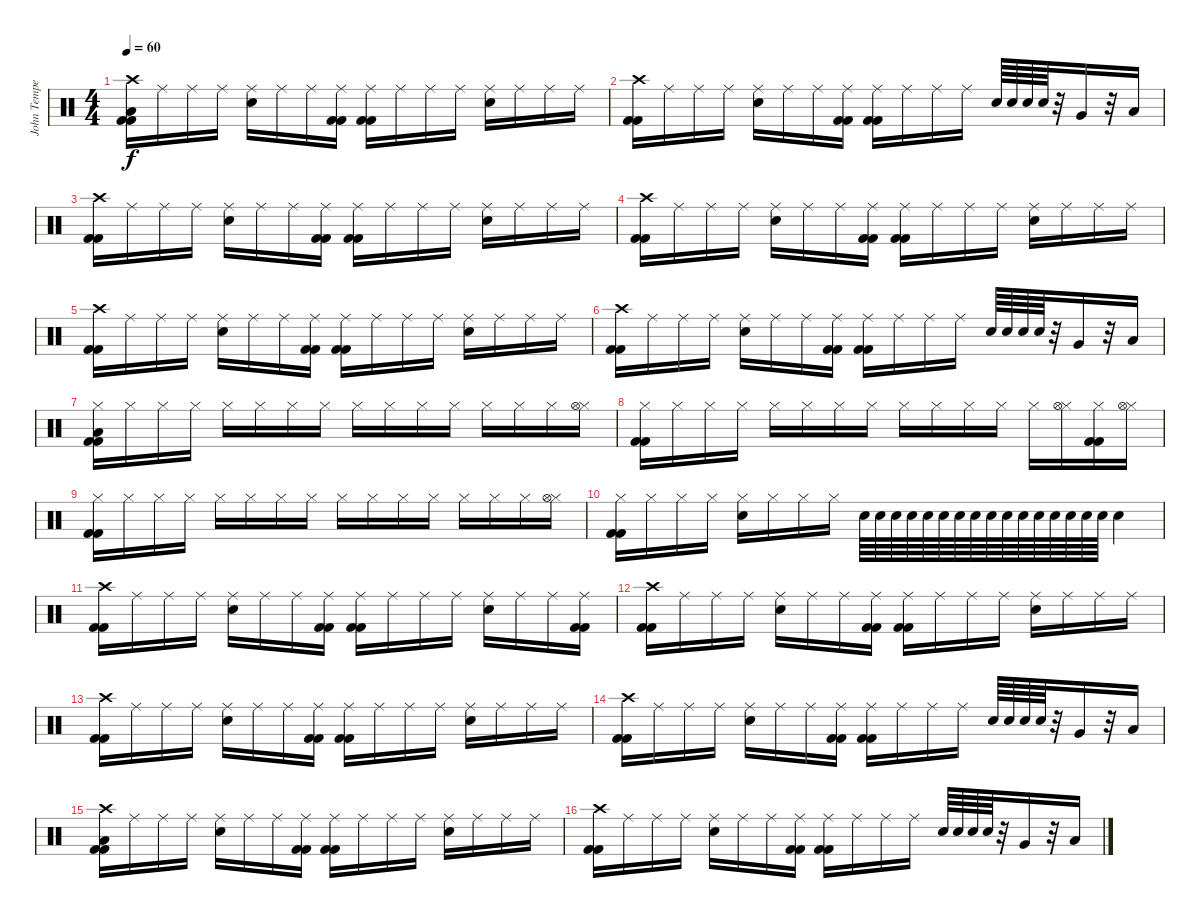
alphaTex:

\track ("John Tempesta" "John Tempe") {instrument percussion}
\staff {score}
\articulation defaults
\ts (4 4)
\tempo 60
\clef neutral
\ks c
("Crash high (hit)" "Low Floor Tom (hit)" "Kick (hit) 2" "Kick (hit) 2").16{dy f} "Ride (middle)".16 "Ride (middle)".16 "Ride (middle)".16 ("Ride (middle)" "Electric Snare (hit)").16 "Ride (middle)".16 "Ride (middle)".16 ("Ride (middle)" "Kick (hit) 2" "Kick (hit) 2").16 ("Ride (middle)" "Kick (hit) 2" "Kick (hit) 2").16 "Ride (middle)".16 "Ride (middle)".16 "Ride (middle)".16 ("Ride (middle)" "Electric Snare (hit)").16 "Ride (middle)".16 "Ride (middle)".16 "Ride (middle)".16 |
("Crash high (hit)" "Kick (hit) 2" "Kick (hit) 2").16 "Ride (middle)".16 "Ride (middle)".16 "Ride (middle)".16 ("Ride (middle)" "Electric Snare (hit)").16 "Ride (middle)".16 "Ride (middle)".16 ("Ride (middle)" "Kick (hit) 2" "Kick (hit) 2").16 ("Ride (middle)" "Kick (hit) 2" "Kick (hit) 2").16 "Ride (middle)".16 "Ride (middle)".16 "Ride (middle)".16 "Electric Snare (hit)".64 "Electric Snare (hit)".64 "Electric Snare (hit)".64 "Electric Snare (hit)".64 r.32 "Very Low Tom (hit)".16 r.32 "Low Floor Tom (hit)".16 |
("Crash high (hit)" "Kick (hit) 2" "Kick (hit) 2").16 "Ride (middle)".16 "Ride (middle)".16 "Ride (middle)".16 ("Ride (middle)" "Electric Snare (hit)").16 "Ride (middle)".16 "Ride (middle)".16 ("Ride (middle)" "Kick (hit) 2" "Kick (hit) 2").16 ("Ride (middle)" "Kick (hit) 2" "Kick (hit) 2").16 "Ride (middle)".16 "Ride (middle)".16 "Ride (middle)".16 ("Ride (middle)" "Electric Snare (hit)").16 "Ride (middle)".16 "Ride (middle)".16 "Ride (middle)".16 |
("Crash high (hit)" "Kick (hit) 2" "Kick (hit) 2").16 "Ride (middle)".16 "Ride (middle)".16 "Ride (middle)".16 ("Ride (middle)" "Electric Snare (hit)").16 "Ride (middle)".16 "Ride (middle)".16 ("Ride (middle)" "Kick (hit) 2" "Kick (hit) 2").16 ("Ride (middle)" "Kick (hit) 2" "Kick (hit) 2").16 "Ride (middle)".16 "Ride (middle)".16 "Ride (middle)".16 ("Ride (middle)" "Electric Snare (hit)").16 "Ride (middle)".16 "Ride (middle)".16 "Ride (middle)".16 |
("Crash high (hit)" "Kick (hit) 2" "Kick (hit) 2").16 "Ride (middle)".16 "Ride (middle)".16 "Ride (middle)".16 ("Ride (middle)" "Electric Snare (hit)").16 "Ride (middle)".16 "Ride (middle)".16 ("Ride (middle)" "Kick (hit) 2" "Kick (hit) 2").16 ("Ride (middle)" "Kick (hit) 2" "Kick (hit) 2").16 "Ride (middle)".16 "Ride (middle)".16 "Ride (middle)".16 ("Ride (middle)" "Electric Snare (hit)").16 "Ride (middle)".16 "Ride (middle)".16 "Ride (middle)".16 |
("Crash high (hit)" "Kick (hit) 2" "Kick (hit) 2").16 "Ride (middle)".16 "Ride (middle)".16 "Ride (middle)".16 ("Ride (middle)" "Electric Snare (hit)").16 "Ride (middle)".16 "Ride (middle)".16 ("Ride (middle)" "Kick (hit) 2" "Kick (hit) 2").16 ("Ride (middle)" "Kick (hit) 2" "Kick (hit) 2").16 "Ride (middle)".16 "Ride (middle)".16 "Ride (middle)".16 "Electric Snare (hit)".64 "Electric Snare (hit)".64 "Electric Snare (hit)".64 "Electric Snare (hit)".64 r.32 "Very Low Tom (hit)".16 r.32 "Low Floor Tom (hit)".16 |
("Hi-Hat (closed)" "Low Floor Tom (hit)" "Kick (hit) 2" "Kick (hit) 2").16 "Hi-Hat (closed)".16 "Hi-Hat (closed)".16 "Hi-Hat (closed)".16 "Hi-Hat (closed)".16 "Hi-Hat (closed)".16 "Hi-Hat (closed)".16 "Hi-Hat (closed)".16 "Hi-Hat (closed)".16 "Hi-Hat (closed)".16 "Hi-Hat (closed)".16 "Hi-Hat (closed)".16 "Hi-Hat (closed)".16 "Hi-Hat (closed)".16 "Hi-Hat (closed)".16 ("Hi-Hat (closed)" "Hi-Hat (open)").16 |
("Hi-Hat (closed)" "Kick (hit) 2" "Kick (hit) 2").16 "Hi-Hat (closed)".16 "Hi-Hat (closed)".16 "Hi-Hat (closed)".16 "Hi-Hat (closed)".16 "Hi-Hat (closed)".16 "Hi-Hat (closed)".16 "Hi-Hat (closed)".16 "Hi-Hat (closed)".16 "Hi-Hat (closed)".16 "Hi-Hat (closed)".16 "Hi-Hat (closed)".16 "Hi-Hat (closed)".16 ("Hi-Hat (closed)" "Hi-Hat (open)").16 ("Hi-Hat (closed)" "Kick (hit) 2" "Kick (hit) 2").16 ("Hi-Hat (closed)" "Hi-Hat (open)").16 |
("Hi-Hat (closed)" "Kick (hit) 2" "Kick (hit) 2").16 "Hi-Hat (closed)".16 "Hi-Hat (closed)".16 "Hi-Hat (closed)".16 "Hi-Hat (closed)".16 "Hi-Hat (closed)".16 "Hi-Hat (closed)".16 "Hi-Hat (closed)".16 "Hi-Hat (closed)".16 "Hi-Hat (closed)".16 "Hi-Hat (closed)".16 "Hi-Hat (closed)".16 "Hi-Hat (closed)".16 "Hi-Hat (closed)".16 "Hi-Hat (closed)".16 ("Hi-Hat (closed)" "Hi-Hat (open)").16 |
("Hi-Hat (closed)" "Kick (hit) 2" "Kick (hit) 2").16 "Hi-Hat (closed)".16 "Hi-Hat (closed)".16 "Hi-Hat (closed)".16 ("Hi-Hat (closed)" "Electric Snare (hit)").16 "Hi-Hat (closed)".16 "Hi-Hat (closed)".16 "Hi-Hat (closed)".16 "Electric Snare (hit)".64 "Electric Snare (hit)".64 "Electric Snare (hit)".64 "Electric Snare (hit)".64 "Electric Snare (hit)".64 "Electric Snare (hit)".64 "Electric Snare (hit)".64 "Electric Snare (hit)".64 "Electric Snare (hit)".64 "Electric Snare (hit)".64 "Electric Snare (hit)".64 "Electric Snare (hit)".64 "Electric Snare (hit)".64 "Electric Snare (hit)".64 "Electric Snare (hit)".64 "Electric Snare (hit)".64 "Electric Snare (hit)".4 |
("Crash high (hit)" "Kick (hit) 2" "Kick (hit) 2").16 "Ride (middle)".16 "Ride (middle)".16 "Ride (middle)".16 ("Ride (middle)" "Electric Snare (hit)").16 "Ride (middle)".16 "Ride (middle)".16 ("Ride (middle)" "Kick (hit) 2" "Kick (hit) 2").16 ("Ride (middle)" "Kick (hit) 2" "Kick (hit) 2").16 "Ride (middle)".16 "Ride (middle)".16 "Ride (middle)".16 ("Ride (middle)" "Electric Snare (hit)").16 "Ride (middle)".16 "Ride (middle)".16 ("Ride (middle)" "Kick (hit) 2" "Kick (hit) 2").16 |
("Crash high (hit)" "Kick (hit) 2" "Kick (hit) 2").16 "Ride (middle)".16 "Ride (middle)".16 "Ride (middle)".16 ("Ride (middle)" "Electric Snare (hit)").16 "Ride (middle)".16 "Ride (middle)".16 ("Ride (middle)" "Kick (hit) 2" "Kick (hit) 2").16 ("Ride (middle)" "Kick (hit) 2" "Kick (hit) 2").16 "Ride (middle)".16 "Ride (middle)".16 "Ride (middle)".16 ("Ride (middle)" "Electric Snare (hit)").16 "Ride (middle)".16 "Ride (middle)".16 "Ride (middle)".16 |
("Crash high (hit)" "Kick (hit) 2" "Kick (hit) 2").16 "Ride (middle)".16 "Ride (middle)".16 "Ride (middle)".16 ("Ride (middle)" "Electric Snare (hit)").16 "Ride (middle)".16 "Ride (middle)".16 ("Ride (middle)" "Kick (hit) 2" "Kick (hit) 2").16 ("Ride (middle)" "Kick (hit) 2" "Kick (hit) 2").16 "Ride (middle)".16 "Ride (middle)".16 "Ride (middle)".16 ("Ride (middle)" "Electric Snare (hit)").16 "Ride (middle)".16 "Ride (middle)".16 "Ride (middle)".16 |
("Crash high (hit)" "Kick (hit) 2" "Kick (hit) 2").16 "Ride (middle)".16 "Ride (middle)".16 "Ride (middle)".16 ("Ride (middle)" "Electric Snare (hit)").16 "Ride (middle)".16 "Ride (middle)".16 ("Ride (middle)" "Kick (hit) 2" "Kick (hit) 2").16 ("Ride (middle)" "Kick (hit) 2" "Kick (hit) 2").16 "Ride (middle)".16 "Ride (middle)".16 "Ride (middle)".16 "Electric Snare (hit)".64 "Electric Snare (hit)".64 "Electric Snare (hit)".64 "Electric Snare (hit)".64 r.32 "Very Low Tom (hit)".16 r.32 "Low Floor Tom (hit)".16 |
("Crash high (hit)" "Low Floor Tom (hit)" "Kick (hit) 2" "Kick (hit) 2").16 "Ride (middle)".16 "Ride (middle)".16 "Ride (middle)".16 ("Ride (middle)" "Electric Snare (hit)").16 "Ride (middle)".16 "Ride (middle)".16 ("Ride (middle)" "Kick (hit) 2" "Kick (hit) 2").16 ("Ride (middle)" "Kick (hit) 2" "Kick (hit) 2").16 "Ride (middle)".16 "Ride (middle)".16 "Ride (middle)".16 ("Ride (middle)" "Electric Snare (hit)").16 "Ride (middle)".16 "Ride (middle)".16 "Ride (middle)".16 |
("Crash high (hit)" "Kick (hit) 2" "Kick (hit) 2").16 "Ride (middle)".16 "Ride (middle)".16 "Ride (middle)".16 ("Ride (middle)" "Electric Snare (hit)").16 "Ride (middle)".16 "Ride (middle)".16 ("Ride (middle)" "Kick (hit) 2" "Kick (hit) 2").16 ("Ride (middle)" "Kick (hit) 2" "Kick (hit) 2").16 "Ride (middle)".16 "Ride (middle)".16 "Ride (middle)".16 "Electric Snare (hit)".64 "Electric Snare (hit)".64 "Electric Snare (hit)".64 "Electric Snare (hit)".64 r.32 "Very Low Tom (hit)".16 r.32 "Low Floor Tom (hit)".16
